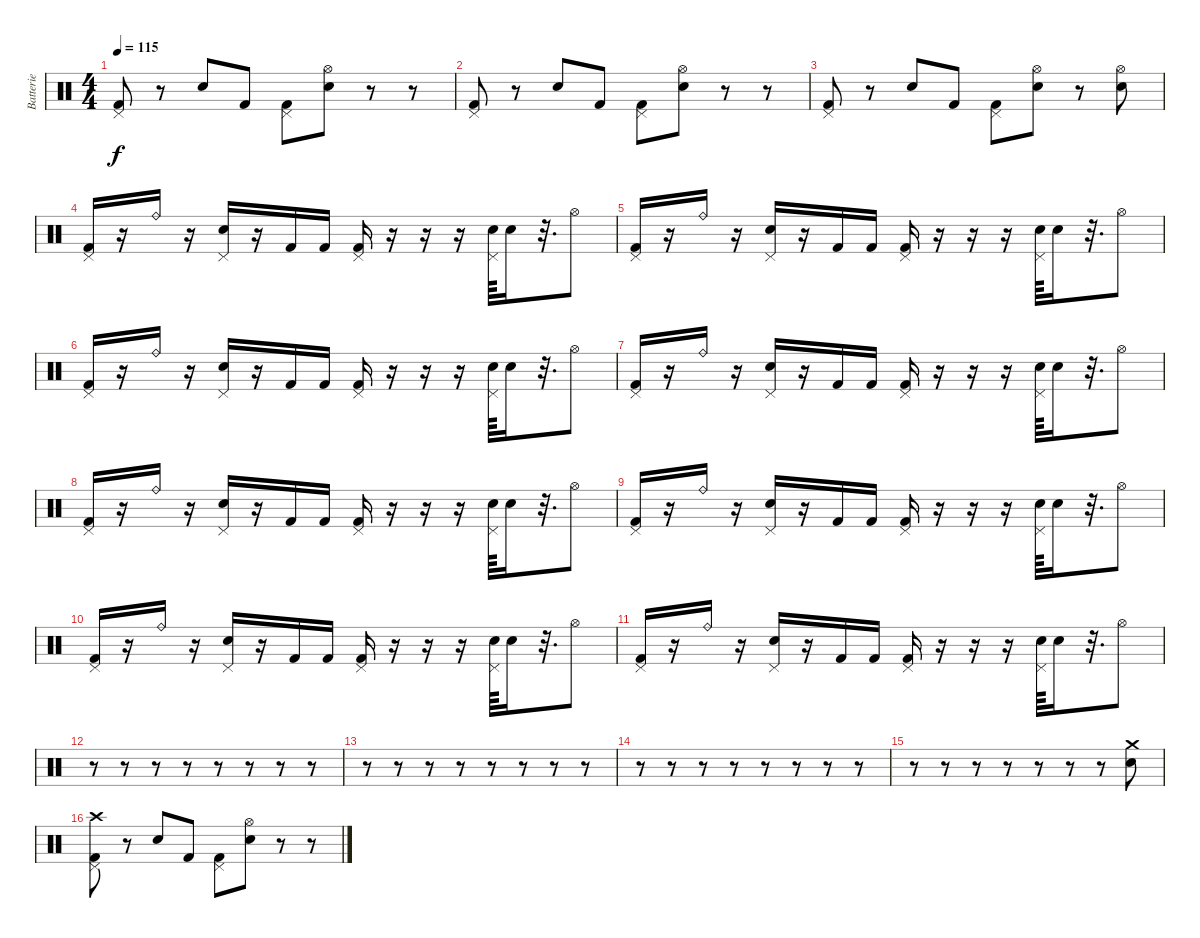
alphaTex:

\track ("Batterie" "Batterie") {instrument percussion}
\staff {score}
\articulation defaults
\ts (4 4)
\tempo 115
\clef neutral
\ks c
("Pedal Hi-Hat (hit)" "Kick (hit) 2").8{dy f} r.8 "Electric Snare (hit)".8 "Kick (hit) 2".8 ("Pedal Hi-Hat (hit)" "Kick (hit) 2").8 ("Hi-Hat (open)" "Electric Snare (hit)").8 r.8 r.8 |
("Pedal Hi-Hat (hit)" "Kick (hit) 2").8 r.8 "Electric Snare (hit)".8 "Kick (hit) 2".8 ("Pedal Hi-Hat (hit)" "Kick (hit) 2").8 ("Hi-Hat (open)" "Electric Snare (hit)").8 r.8 r.8 |
("Pedal Hi-Hat (hit)" "Kick (hit) 2").8 r.8 "Electric Snare (hit)".8 "Kick (hit) 2".8 ("Pedal Hi-Hat (hit)" "Kick (hit) 2").8 ("Hi-Hat (open)" "Electric Snare (hit)").8 r.8 ("Hi-Hat (open)" "Electric Snare (hit)").8 |
("Pedal Hi-Hat (hit)" "Kick (hit) 2").16 r.16 "Ride (bell)".16 r.16 ("Pedal Hi-Hat (hit)" "Electric Snare (hit)").16 r.16 "Kick (hit) 2".16 "Kick (hit) 2".16 ("Pedal Hi-Hat (hit)" "Kick (hit) 2").16 r.16 r.16 r.16 ("Pedal Hi-Hat (hit)" "Electric Snare (hit)").64 "Electric Snare (hit)".16 r.32{d} "Hi-Hat (open)".8 |
("Pedal Hi-Hat (hit)" "Kick (hit) 2").16 r.16 "Ride (bell)".16 r.16 ("Pedal Hi-Hat (hit)" "Electric Snare (hit)").16 r.16 "Kick (hit) 2".16 "Kick (hit) 2".16 ("Pedal Hi-Hat (hit)" "Kick (hit) 2").16 r.16 r.16 r.16 ("Pedal Hi-Hat (hit)" "Electric Snare (hit)").64 "Electric Snare (hit)".16 r.32{d} "Hi-Hat (open)".8 |
("Pedal Hi-Hat (hit)" "Kick (hit) 2").16 r.16 "Ride (bell)".16 r.16 ("Pedal Hi-Hat (hit)" "Electric Snare (hit)").16 r.16 "Kick (hit) 2".16 "Kick (hit) 2".16 ("Pedal Hi-Hat (hit)" "Kick (hit) 2").16 r.16 r.16 r.16 ("Pedal Hi-Hat (hit)" "Electric Snare (hit)").64 "Electric Snare (hit)".16 r.32{d} "Hi-Hat (open)".8 |
("Pedal Hi-Hat (hit)" "Kick (hit) 2").16 r.16 "Ride (bell)".16 r.16 ("Pedal Hi-Hat (hit)" "Electric Snare (hit)").16 r.16 "Kick (hit) 2".16 "Kick (hit) 2".16 ("Pedal Hi-Hat (hit)" "Kick (hit) 2").16 r.16 r.16 r.16 ("Pedal Hi-Hat (hit)" "Electric Snare (hit)").64 "Electric Snare (hit)".16 r.32{d} "Hi-Hat (open)".8 |
("Pedal Hi-Hat (hit)" "Kick (hit) 2").16 r.16 "Ride (bell)".16 r.16 ("Pedal Hi-Hat (hit)" "Electric Snare (hit)").16 r.16 "Kick (hit) 2".16 "Kick (hit) 2".16 ("Pedal Hi-Hat (hit)" "Kick (hit) 2").16 r.16 r.16 r.16 ("Pedal Hi-Hat (hit)" "Electric Snare (hit)").64 "Electric Snare (hit)".16 r.32{d} "Hi-Hat (open)".8 |
("Pedal Hi-Hat (hit)" "Kick (hit) 2").16 r.16 "Ride (bell)".16 r.16 ("Pedal Hi-Hat (hit)" "Electric Snare (hit)").16 r.16 "Kick (hit) 2".16 "Kick (hit) 2".16 ("Pedal Hi-Hat (hit)" "Kick (hit) 2").16 r.16 r.16 r.16 ("Pedal Hi-Hat (hit)" "Electric Snare (hit)").64 "Electric Snare (hit)".16 r.32{d} "Hi-Hat (open)".8 |
("Pedal Hi-Hat (hit)" "Kick (hit) 2").16 r.16 "Ride (bell)".16 r.16 ("Pedal Hi-Hat (hit)" "Electric Snare (hit)").16 r.16 "Kick (hit) 2".16 "Kick (hit) 2".16 ("Pedal Hi-Hat (hit)" "Kick (hit) 2").16 r.16 r.16 r.16 ("Pedal Hi-Hat (hit)" "Electric Snare (hit)").64 "Electric Snare (hit)".16 r.32{d} "Hi-Hat (open)".8 |
("Pedal Hi-Hat (hit)" "Kick (hit) 2").16 r.16 "Ride (bell)".16 r.16 ("Pedal Hi-Hat (hit)" "Electric Snare (hit)").16 r.16 "Kick (hit) 2".16 "Kick (hit) 2".16 ("Pedal Hi-Hat (hit)" "Kick (hit) 2").16 r.16 r.16 r.16 ("Pedal Hi-Hat (hit)" "Electric Snare (hit)").64 "Electric Snare (hit)".16 r.32{d} "Hi-Hat (open)".8 |
r.8 r.8 r.8 r.8 r.8 r.8 r.8 r.8 |
r.8 r.8 r.8 r.8 r.8 r.8 r.8 r.8 |
r.8 r.8 r.8 r.8 r.8 r.8 r.8 r.8 |
r.8 r.8 r.8 r.8 r.8 r.8 r.8 ("Crash medium (hit)" "Electric Snare (hit)").8 |
("Crash high (hit)" "Pedal Hi-Hat (hit)" "Kick (hit) 2").8 r.8 "Electric Snare (hit)".8 "Kick (hit) 2".8 ("Pedal Hi-Hat (hit)" "Kick (hit) 2").8 ("Hi-Hat (open)" "Electric Snare (hit)").8 r.8 r.8
